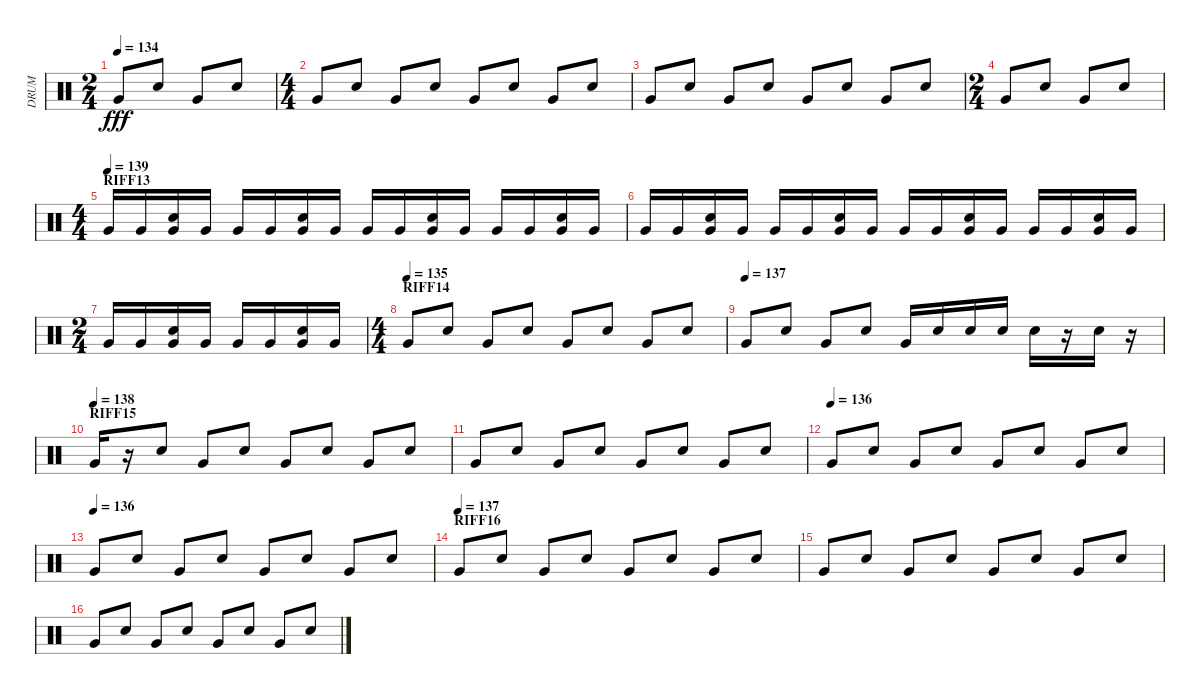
\track ("DRUM" "DRUM") {instrument percussion}
\staff {score}
\articulation defaults
\ts (2 4)
\tempo 134
\clef neutral
\ks c "Very Low Tom (hit)".8{dy fff} "Electric Snare (hit)".8 "Very Low Tom (hit)".8 "Electric Snare (hit)".8
|
\ts (4 4)
"Very Low Tom (hit)".8 "Electric Snare (hit)".8 "Very Low Tom (hit)".8 "Electric Snare (hit)".8 "Very Low Tom (hit)".8 "Electric Snare (hit)".8 "Very Low Tom (hit)".8 "Electric Snare (hit)".8 |
"Very Low Tom (hit)".8 "Electric Snare (hit)".8 "Very Low Tom (hit)".8 "Electric Snare (hit)".8 "Very Low Tom (hit)".8 "Electric Snare (hit)".8 "Very Low Tom (hit)".8 "Electric Snare (hit)".8 |
\ts (2 4)
"Very Low Tom (hit)".8 "Electric Snare (hit)".8 "Very Low Tom (hit)".8 "Electric Snare (hit)".8 |
\ts (4 4)
\section ("" "RIFF13")
\tempo (139)
"Very Low Tom (hit)".16 "Very Low Tom (hit)".16 ("Very Low Tom (hit)" "Electric Snare (hit)").16 "Very Low Tom (hit)".16 "Very Low Tom (hit)".16 "Very Low Tom (hit)".16 ("Very Low Tom (hit)" "Electric Snare (hit)").16 "Very Low Tom (hit)".16 "Very Low Tom (hit)".16 "Very Low Tom (hit)".16 ("Very Low Tom (hit)" "Electric Snare (hit)").16 "Very Low Tom (hit)".16 "Very Low Tom (hit)".16 "Very Low Tom (hit)".16 ("Very Low Tom (hit)" "Electric Snare (hit)").16 "Very Low Tom (hit)".16 |
"Very Low Tom (hit)".16 "Very Low Tom (hit)".16 ("Very Low Tom (hit)" "Electric Snare (hit)").16 "Very Low Tom (hit)".16 "Very Low Tom (hit)".16 "Very Low Tom (hit)".16 ("Very Low Tom (hit)" "Electric Snare (hit)").16 "Very Low Tom (hit)".16 "Very Low Tom (hit)".16 "Very Low Tom (hit)".16 ("Very Low Tom (hit)" "Electric Snare (hit)").16 "Very Low Tom (hit)".16 "Very Low Tom (hit)".16 "Very Low Tom (hit)".16 ("Very Low Tom (hit)" "Electric Snare (hit)").16 "Very Low Tom (hit)".16 |
\ts (2 4)
"Very Low Tom (hit)".16 "Very Low Tom (hit)".16 ("Very Low Tom (hit)" "Electric Snare (hit)").16 "Very Low Tom (hit)".16 "Very Low Tom (hit)".16 "Very Low Tom (hit)".16 ("Very Low Tom (hit)" "Electric Snare (hit)").16 "Very Low Tom (hit)".16 |
\ts (4 4)
\section ("" "RIFF14")
\tempo (135)
"Very Low Tom (hit)".8 "Electric Snare (hit)".8 "Very Low Tom (hit)".8 "Electric Snare (hit)".8 "Very Low Tom (hit)".8 "Electric Snare (hit)".8 "Very Low Tom (hit)".8 "Electric Snare (hit)".8 |
\tempo (137)
"Very Low Tom (hit)".8 "Electric Snare (hit)".8 "Very Low Tom (hit)".8 "Electric Snare (hit)".8 "Very Low Tom (hit)".16 "Electric Snare (hit)".16 "Electric Snare (hit)".16 "Electric Snare (hit)".16 "Electric Snare (hit)".16 r.16 "Electric Snare (hit)".16 r.16 |
\section ("" "RIFF15")
\tempo (138)
"Very Low Tom (hit)".16 r.16 "Electric Snare (hit)".8 "Very Low Tom (hit)".8 "Electric Snare (hit)".8 "Very Low Tom (hit)".8 "Electric Snare (hit)".8 "Very Low Tom (hit)".8 "Electric Snare (hit)".8 |
"Very Low Tom (hit)".8 "Electric Snare (hit)".8 "Very Low Tom (hit)".8 "Electric Snare (hit)".8 "Very Low Tom (hit)".8 "Electric Snare (hit)".8 "Very Low Tom (hit)".8 "Electric Snare (hit)".8 |
\tempo (136)
"Very Low Tom (hit)".8 "Electric Snare (hit)".8 "Very Low Tom (hit)".8 "Electric Snare (hit)".8 "Very Low Tom (hit)".8 "Electric Snare (hit)".8 "Very Low Tom (hit)".8 "Electric Snare (hit)".8 |
\tempo (136)
"Very Low Tom (hit)".8 "Electric Snare (hit)".8 "Very Low Tom (hit)".8 "Electric Snare (hit)".8 "Very Low Tom (hit)".8 "Electric Snare (hit)".8 "Very Low Tom (hit)".8 "Electric Snare (hit)".8 |
\section ("" "RIFF16")
\tempo (137)
"Very Low Tom (hit)".8 "Electric Snare (hit)".8 "Very Low Tom (hit)".8 "Electric Snare (hit)".8 "Very Low Tom (hit)".8 "Electric Snare (hit)".8 "Very Low Tom (hit)".8 "Electric Snare (hit)".8 |
"Very Low Tom (hit)".8 "Electric Snare (hit)".8 "Very Low Tom (hit)".8 "Electric Snare (hit)".8 "Very Low Tom (hit)".8 "Electric Snare (hit)".8 "Very Low Tom (hit)".8 "Electric Snare (hit)".8 |
"Very Low Tom (hit)".8 "Electric Snare (hit)".8 "Very Low Tom (hit)".8 "Electric Snare (hit)".8 "Very Low Tom (hit)".8 "Electric Snare (hit)".8 "Very Low Tom (hit)".8 "Electric Snare (hit)".8
